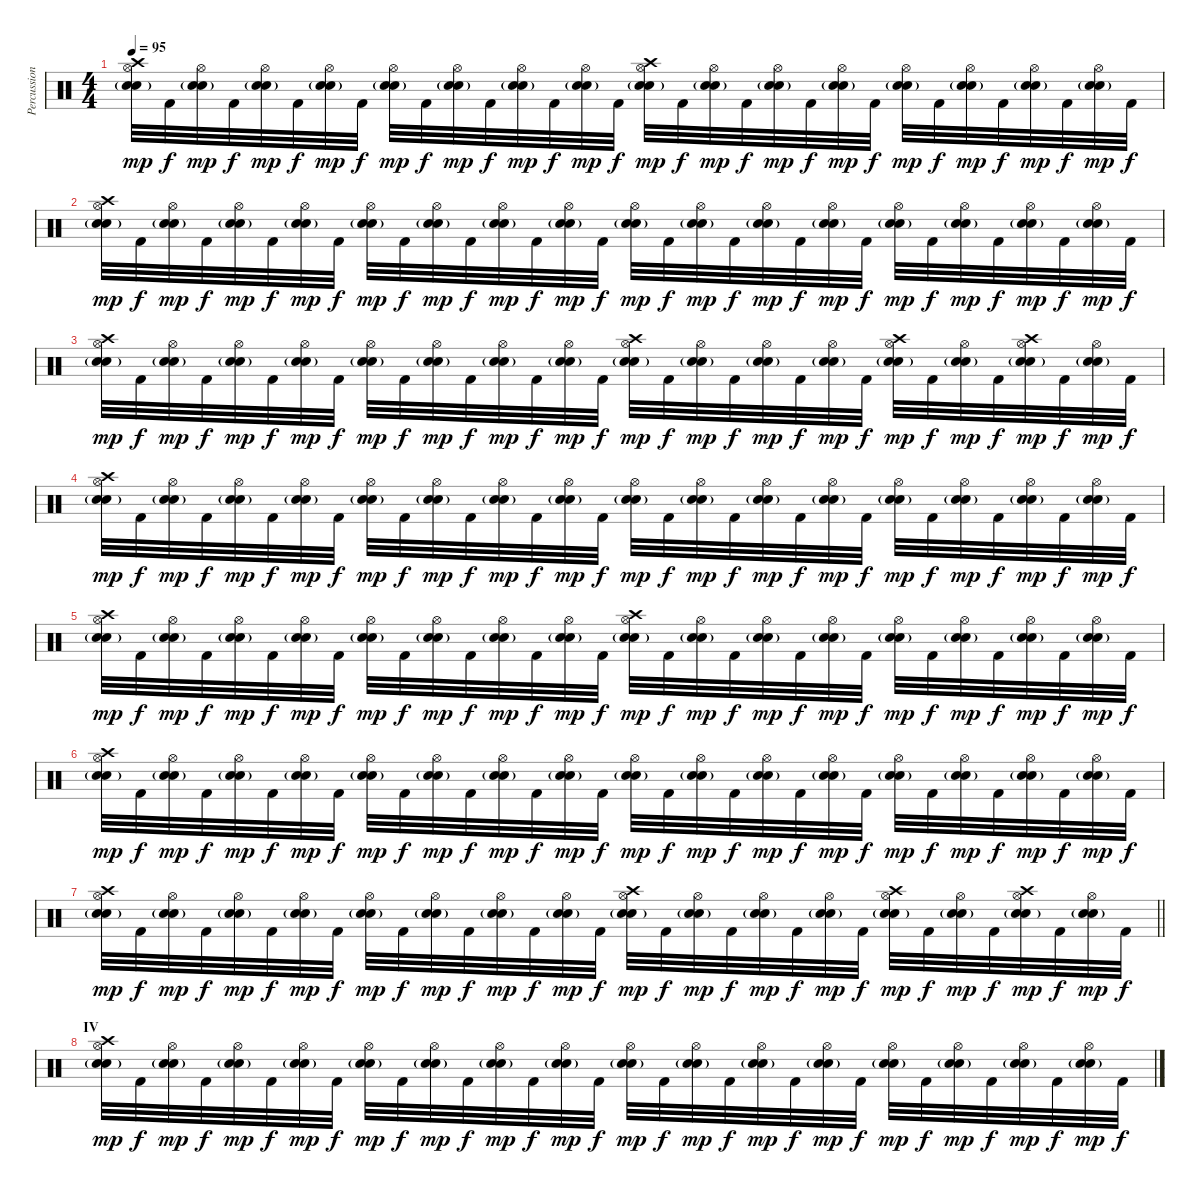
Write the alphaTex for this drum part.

\track ("Percussion" "Percussion") {instrument percussion}
\staff {score}
\articulation defaults
\ts (4 4)
\tempo 95
\clef neutral
\ks c
("Crash high (hit)" "Electric Snare (hit)" "Snare (hit) 2"{g} "Hi-Hat (open)").32{dy mp} "Kick (hit) 2".32{dy f} ("Electric Snare (hit)" "Snare (hit) 2"{g} "Hi-Hat (open)").32{dy mp} "Kick (hit) 2".32{dy f} ("Electric Snare (hit)" "Snare (hit) 2"{g} "Hi-Hat (open)").32{dy mp} "Kick (hit) 2".32{dy f} ("Electric Snare (hit)" "Snare (hit) 2"{g} "Hi-Hat (open)").32{dy mp} "Kick (hit) 2".32{dy f} ("Electric Snare (hit)" "Snare (hit) 2"{g} "Hi-Hat (open)").32{dy mp} "Kick (hit) 2".32{dy f} ("Electric Snare (hit)" "Snare (hit) 2"{g} "Hi-Hat (open)").32{dy mp} "Kick (hit) 2".32{dy f} ("Electric Snare (hit)" "Snare (hit) 2"{g} "Hi-Hat (open)").32{dy mp} "Kick (hit) 2".32{dy f} ("Electric Snare (hit)" "Snare (hit) 2"{g} "Hi-Hat (open)").32{dy mp} "Kick (hit) 2".32{dy f} ("Crash high (hit)" "Electric Snare (hit)" "Snare (hit) 2"{g} "Hi-Hat (open)").32{dy mp} "Kick (hit) 2".32{dy f} ("Electric Snare (hit)" "Snare (hit) 2"{g} "Hi-Hat (open)").32{dy mp} "Kick (hit) 2".32{dy f} ("Electric Snare (hit)" "Snare (hit) 2"{g} "Hi-Hat (open)").32{dy mp} "Kick (hit) 2".32{dy f} ("Electric Snare (hit)" "Snare (hit) 2"{g} "Hi-Hat (open)").32{dy mp} "Kick (hit) 2".32{dy f} ("Electric Snare (hit)" "Snare (hit) 2"{g} "Hi-Hat (open)").32{dy mp} "Kick (hit) 2".32{dy f} ("Electric Snare (hit)" "Snare (hit) 2"{g} "Hi-Hat (open)").32{dy mp} "Kick (hit) 2".32{dy f} ("Electric Snare (hit)" "Snare (hit) 2"{g} "Hi-Hat (open)").32{dy mp} "Kick (hit) 2".32{dy f} ("Electric Snare (hit)" "Snare (hit) 2"{g} "Hi-Hat (open)").32{dy mp} "Kick (hit) 2".32{dy f} |
("Crash high (hit)" "Electric Snare (hit)" "Snare (hit) 2"{g} "Hi-Hat (open)").32{dy mp} "Kick (hit) 2".32{dy f} ("Electric Snare (hit)" "Snare (hit) 2"{g} "Hi-Hat (open)").32{dy mp} "Kick (hit) 2".32{dy f} ("Electric Snare (hit)" "Snare (hit) 2"{g} "Hi-Hat (open)").32{dy mp} "Kick (hit) 2".32{dy f} ("Electric Snare (hit)" "Snare (hit) 2"{g} "Hi-Hat (open)").32{dy mp} "Kick (hit) 2".32{dy f} ("Electric Snare (hit)" "Snare (hit) 2"{g} "Hi-Hat (open)").32{dy mp} "Kick (hit) 2".32{dy f} ("Electric Snare (hit)" "Snare (hit) 2"{g} "Hi-Hat (open)").32{dy mp} "Kick (hit) 2".32{dy f} ("Electric Snare (hit)" "Snare (hit) 2"{g} "Hi-Hat (open)").32{dy mp} "Kick (hit) 2".32{dy f} ("Electric Snare (hit)" "Snare (hit) 2"{g} "Hi-Hat (open)").32{dy mp} "Kick (hit) 2".32{dy f} ("Electric Snare (hit)" "Snare (hit) 2"{g} "Hi-Hat (open)").32{dy mp} "Kick (hit) 2".32{dy f} ("Electric Snare (hit)" "Snare (hit) 2"{g} "Hi-Hat (open)").32{dy mp} "Kick (hit) 2".32{dy f} ("Electric Snare (hit)" "Snare (hit) 2"{g} "Hi-Hat (open)").32{dy mp} "Kick (hit) 2".32{dy f} ("Electric Snare (hit)" "Snare (hit) 2"{g} "Hi-Hat (open)").32{dy mp} "Kick (hit) 2".32{dy f} ("Electric Snare (hit)" "Snare (hit) 2"{g} "Hi-Hat (open)").32{dy mp} "Kick (hit) 2".32{dy f} ("Electric Snare (hit)" "Snare (hit) 2"{g} "Hi-Hat (open)").32{dy mp} "Kick (hit) 2".32{dy f} ("Electric Snare (hit)" "Snare (hit) 2"{g} "Hi-Hat (open)").32{dy mp} "Kick (hit) 2".32{dy f} ("Electric Snare (hit)" "Snare (hit) 2"{g} "Hi-Hat (open)").32{dy mp} "Kick (hit) 2".32{dy f} |
("Crash high (hit)" "Electric Snare (hit)" "Snare (hit) 2"{g} "Hi-Hat (open)").32{dy mp} "Kick (hit) 2".32{dy f} ("Electric Snare (hit)" "Snare (hit) 2"{g} "Hi-Hat (open)").32{dy mp} "Kick (hit) 2".32{dy f} ("Electric Snare (hit)" "Snare (hit) 2"{g} "Hi-Hat (open)").32{dy mp} "Kick (hit) 2".32{dy f} ("Electric Snare (hit)" "Snare (hit) 2"{g} "Hi-Hat (open)").32{dy mp} "Kick (hit) 2".32{dy f} ("Electric Snare (hit)" "Snare (hit) 2"{g} "Hi-Hat (open)").32{dy mp} "Kick (hit) 2".32{dy f} ("Electric Snare (hit)" "Snare (hit) 2"{g} "Hi-Hat (open)").32{dy mp} "Kick (hit) 2".32{dy f} ("Electric Snare (hit)" "Snare (hit) 2"{g} "Hi-Hat (open)").32{dy mp} "Kick (hit) 2".32{dy f} ("Electric Snare (hit)" "Snare (hit) 2"{g} "Hi-Hat (open)").32{dy mp} "Kick (hit) 2".32{dy f} ("Crash high (hit)" "Electric Snare (hit)" "Snare (hit) 2"{g} "Hi-Hat (open)").32{dy mp} "Kick (hit) 2".32{dy f} ("Electric Snare (hit)" "Snare (hit) 2"{g} "Hi-Hat (open)").32{dy mp} "Kick (hit) 2".32{dy f} ("Electric Snare (hit)" "Snare (hit) 2"{g} "Hi-Hat (open)").32{dy mp} "Kick (hit) 2".32{dy f} ("Electric Snare (hit)" "Snare (hit) 2"{g} "Hi-Hat (open)").32{dy mp} "Kick (hit) 2".32{dy f} ("Crash high (hit)" "Electric Snare (hit)" "Snare (hit) 2"{g} "Hi-Hat (open)").32{dy mp} "Kick (hit) 2".32{dy f} ("Electric Snare (hit)" "Snare (hit) 2"{g} "Hi-Hat (open)").32{dy mp} "Kick (hit) 2".32{dy f} ("Crash high (hit)" "Electric Snare (hit)" "Snare (hit) 2"{g} "Hi-Hat (open)").32{dy mp} "Kick (hit) 2".32{dy f} ("Electric Snare (hit)" "Snare (hit) 2"{g} "Hi-Hat (open)").32{dy mp} "Kick (hit) 2".32{dy f} |
("Crash high (hit)" "Electric Snare (hit)" "Snare (hit) 2"{g} "Hi-Hat (open)").32{dy mp} "Kick (hit) 2".32{dy f} ("Electric Snare (hit)" "Snare (hit) 2"{g} "Hi-Hat (open)").32{dy mp} "Kick (hit) 2".32{dy f} ("Electric Snare (hit)" "Snare (hit) 2"{g} "Hi-Hat (open)").32{dy mp} "Kick (hit) 2".32{dy f} ("Electric Snare (hit)" "Snare (hit) 2"{g} "Hi-Hat (open)").32{dy mp} "Kick (hit) 2".32{dy f} ("Electric Snare (hit)" "Snare (hit) 2"{g} "Hi-Hat (open)").32{dy mp} "Kick (hit) 2".32{dy f} ("Electric Snare (hit)" "Snare (hit) 2"{g} "Hi-Hat (open)").32{dy mp} "Kick (hit) 2".32{dy f} ("Electric Snare (hit)" "Snare (hit) 2"{g} "Hi-Hat (open)").32{dy mp} "Kick (hit) 2".32{dy f} ("Electric Snare (hit)" "Snare (hit) 2"{g} "Hi-Hat (open)").32{dy mp} "Kick (hit) 2".32{dy f} ("Electric Snare (hit)" "Snare (hit) 2"{g} "Hi-Hat (open)").32{dy mp} "Kick (hit) 2".32{dy f} ("Electric Snare (hit)" "Snare (hit) 2"{g} "Hi-Hat (open)").32{dy mp} "Kick (hit) 2".32{dy f} ("Electric Snare (hit)" "Snare (hit) 2"{g} "Hi-Hat (open)").32{dy mp} "Kick (hit) 2".32{dy f} ("Electric Snare (hit)" "Snare (hit) 2"{g} "Hi-Hat (open)").32{dy mp} "Kick (hit) 2".32{dy f} ("Electric Snare (hit)" "Snare (hit) 2"{g} "Hi-Hat (open)").32{dy mp} "Kick (hit) 2".32{dy f} ("Electric Snare (hit)" "Snare (hit) 2"{g} "Hi-Hat (open)").32{dy mp} "Kick (hit) 2".32{dy f} ("Electric Snare (hit)" "Snare (hit) 2"{g} "Hi-Hat (open)").32{dy mp} "Kick (hit) 2".32{dy f} ("Electric Snare (hit)" "Snare (hit) 2"{g} "Hi-Hat (open)").32{dy mp} "Kick (hit) 2".32{dy f} |
("Crash high (hit)" "Electric Snare (hit)" "Snare (hit) 2"{g} "Hi-Hat (open)").32{dy mp} "Kick (hit) 2".32{dy f} ("Electric Snare (hit)" "Snare (hit) 2"{g} "Hi-Hat (open)").32{dy mp} "Kick (hit) 2".32{dy f} ("Electric Snare (hit)" "Snare (hit) 2"{g} "Hi-Hat (open)").32{dy mp} "Kick (hit) 2".32{dy f} ("Electric Snare (hit)" "Snare (hit) 2"{g} "Hi-Hat (open)").32{dy mp} "Kick (hit) 2".32{dy f} ("Electric Snare (hit)" "Snare (hit) 2"{g} "Hi-Hat (open)").32{dy mp} "Kick (hit) 2".32{dy f} ("Electric Snare (hit)" "Snare (hit) 2"{g} "Hi-Hat (open)").32{dy mp} "Kick (hit) 2".32{dy f} ("Electric Snare (hit)" "Snare (hit) 2"{g} "Hi-Hat (open)").32{dy mp} "Kick (hit) 2".32{dy f} ("Electric Snare (hit)" "Snare (hit) 2"{g} "Hi-Hat (open)").32{dy mp} "Kick (hit) 2".32{dy f} ("Crash high (hit)" "Electric Snare (hit)" "Snare (hit) 2"{g} "Hi-Hat (open)").32{dy mp} "Kick (hit) 2".32{dy f} ("Electric Snare (hit)" "Snare (hit) 2"{g} "Hi-Hat (open)").32{dy mp} "Kick (hit) 2".32{dy f} ("Electric Snare (hit)" "Snare (hit) 2"{g} "Hi-Hat (open)").32{dy mp} "Kick (hit) 2".32{dy f} ("Electric Snare (hit)" "Snare (hit) 2"{g} "Hi-Hat (open)").32{dy mp} "Kick (hit) 2".32{dy f} ("Electric Snare (hit)" "Snare (hit) 2"{g} "Hi-Hat (open)").32{dy mp} "Kick (hit) 2".32{dy f} ("Electric Snare (hit)" "Snare (hit) 2"{g} "Hi-Hat (open)").32{dy mp} "Kick (hit) 2".32{dy f} ("Electric Snare (hit)" "Snare (hit) 2"{g} "Hi-Hat (open)").32{dy mp} "Kick (hit) 2".32{dy f} ("Electric Snare (hit)" "Snare (hit) 2"{g} "Hi-Hat (open)").32{dy mp} "Kick (hit) 2".32{dy f} |
("Crash high (hit)" "Electric Snare (hit)" "Snare (hit) 2"{g} "Hi-Hat (open)").32{dy mp} "Kick (hit) 2".32{dy f} ("Electric Snare (hit)" "Snare (hit) 2"{g} "Hi-Hat (open)").32{dy mp} "Kick (hit) 2".32{dy f} ("Electric Snare (hit)" "Snare (hit) 2"{g} "Hi-Hat (open)").32{dy mp} "Kick (hit) 2".32{dy f} ("Electric Snare (hit)" "Snare (hit) 2"{g} "Hi-Hat (open)").32{dy mp} "Kick (hit) 2".32{dy f} ("Electric Snare (hit)" "Snare (hit) 2"{g} "Hi-Hat (open)").32{dy mp} "Kick (hit) 2".32{dy f} ("Electric Snare (hit)" "Snare (hit) 2"{g} "Hi-Hat (open)").32{dy mp} "Kick (hit) 2".32{dy f} ("Electric Snare (hit)" "Snare (hit) 2"{g} "Hi-Hat (open)").32{dy mp} "Kick (hit) 2".32{dy f} ("Electric Snare (hit)" "Snare (hit) 2"{g} "Hi-Hat (open)").32{dy mp} "Kick (hit) 2".32{dy f} ("Electric Snare (hit)" "Snare (hit) 2"{g} "Hi-Hat (open)").32{dy mp} "Kick (hit) 2".32{dy f} ("Electric Snare (hit)" "Snare (hit) 2"{g} "Hi-Hat (open)").32{dy mp} "Kick (hit) 2".32{dy f} ("Electric Snare (hit)" "Snare (hit) 2"{g} "Hi-Hat (open)").32{dy mp} "Kick (hit) 2".32{dy f} ("Electric Snare (hit)" "Snare (hit) 2"{g} "Hi-Hat (open)").32{dy mp} "Kick (hit) 2".32{dy f} ("Electric Snare (hit)" "Snare (hit) 2"{g} "Hi-Hat (open)").32{dy mp} "Kick (hit) 2".32{dy f} ("Electric Snare (hit)" "Snare (hit) 2"{g} "Hi-Hat (open)").32{dy mp} "Kick (hit) 2".32{dy f} ("Electric Snare (hit)" "Snare (hit) 2"{g} "Hi-Hat (open)").32{dy mp} "Kick (hit) 2".32{dy f} ("Electric Snare (hit)" "Snare (hit) 2"{g} "Hi-Hat (open)").32{dy mp} "Kick (hit) 2".32{dy f} |
\barLineRight lightlight
("Crash high (hit)" "Electric Snare (hit)" "Snare (hit) 2"{g} "Hi-Hat (open)").32{dy mp} "Kick (hit) 2".32{dy f} ("Electric Snare (hit)" "Snare (hit) 2"{g} "Hi-Hat (open)").32{dy mp} "Kick (hit) 2".32{dy f} ("Electric Snare (hit)" "Snare (hit) 2"{g} "Hi-Hat (open)").32{dy mp} "Kick (hit) 2".32{dy f} ("Electric Snare (hit)" "Snare (hit) 2"{g} "Hi-Hat (open)").32{dy mp} "Kick (hit) 2".32{dy f} ("Electric Snare (hit)" "Snare (hit) 2"{g} "Hi-Hat (open)").32{dy mp} "Kick (hit) 2".32{dy f} ("Electric Snare (hit)" "Snare (hit) 2"{g} "Hi-Hat (open)").32{dy mp} "Kick (hit) 2".32{dy f} ("Electric Snare (hit)" "Snare (hit) 2"{g} "Hi-Hat (open)").32{dy mp} "Kick (hit) 2".32{dy f} ("Electric Snare (hit)" "Snare (hit) 2"{g} "Hi-Hat (open)").32{dy mp} "Kick (hit) 2".32{dy f} ("Crash high (hit)" "Electric Snare (hit)" "Snare (hit) 2"{g} "Hi-Hat (open)").32{dy mp} "Kick (hit) 2".32{dy f} ("Electric Snare (hit)" "Snare (hit) 2"{g} "Hi-Hat (open)").32{dy mp} "Kick (hit) 2".32{dy f} ("Electric Snare (hit)" "Snare (hit) 2"{g} "Hi-Hat (open)").32{dy mp} "Kick (hit) 2".32{dy f} ("Electric Snare (hit)" "Snare (hit) 2"{g} "Hi-Hat (open)").32{dy mp} "Kick (hit) 2".32{dy f} ("Crash high (hit)" "Electric Snare (hit)" "Snare (hit) 2"{g} "Hi-Hat (open)").32{dy mp} "Kick (hit) 2".32{dy f} ("Electric Snare (hit)" "Snare (hit) 2"{g} "Hi-Hat (open)").32{dy mp} "Kick (hit) 2".32{dy f} ("Crash high (hit)" "Electric Snare (hit)" "Snare (hit) 2"{g} "Hi-Hat (open)").32{dy mp} "Kick (hit) 2".32{dy f} ("Electric Snare (hit)" "Snare (hit) 2"{g} "Hi-Hat (open)").32{dy mp} "Kick (hit) 2".32{dy f} |
\section ("" "IV")
("Crash high (hit)" "Electric Snare (hit)" "Snare (hit) 2"{g} "Hi-Hat (open)").32{dy mp} "Kick (hit) 2".32{dy f} ("Electric Snare (hit)" "Snare (hit) 2"{g} "Hi-Hat (open)").32{dy mp} "Kick (hit) 2".32{dy f} ("Electric Snare (hit)" "Snare (hit) 2"{g} "Hi-Hat (open)").32{dy mp} "Kick (hit) 2".32{dy f} ("Electric Snare (hit)" "Snare (hit) 2"{g} "Hi-Hat (open)").32{dy mp} "Kick (hit) 2".32{dy f} ("Electric Snare (hit)" "Snare (hit) 2"{g} "Hi-Hat (open)").32{dy mp} "Kick (hit) 2".32{dy f} ("Electric Snare (hit)" "Snare (hit) 2"{g} "Hi-Hat (open)").32{dy mp} "Kick (hit) 2".32{dy f} ("Electric Snare (hit)" "Snare (hit) 2"{g} "Hi-Hat (open)").32{dy mp} "Kick (hit) 2".32{dy f} ("Electric Snare (hit)" "Snare (hit) 2"{g} "Hi-Hat (open)").32{dy mp} "Kick (hit) 2".32{dy f} ("Electric Snare (hit)" "Snare (hit) 2"{g} "Hi-Hat (open)").32{dy mp} "Kick (hit) 2".32{dy f} ("Electric Snare (hit)" "Snare (hit) 2"{g} "Hi-Hat (open)").32{dy mp} "Kick (hit) 2".32{dy f} ("Electric Snare (hit)" "Snare (hit) 2"{g} "Hi-Hat (open)").32{dy mp} "Kick (hit) 2".32{dy f} ("Electric Snare (hit)" "Snare (hit) 2"{g} "Hi-Hat (open)").32{dy mp} "Kick (hit) 2".32{dy f} ("Electric Snare (hit)" "Snare (hit) 2"{g} "Hi-Hat (open)").32{dy mp} "Kick (hit) 2".32{dy f} ("Electric Snare (hit)" "Snare (hit) 2"{g} "Hi-Hat (open)").32{dy mp} "Kick (hit) 2".32{dy f} ("Electric Snare (hit)" "Snare (hit) 2"{g} "Hi-Hat (open)").32{dy mp} "Kick (hit) 2".32{dy f} ("Electric Snare (hit)" "Snare (hit) 2"{g} "Hi-Hat (open)").32{dy mp} "Kick (hit) 2".32{dy f}
